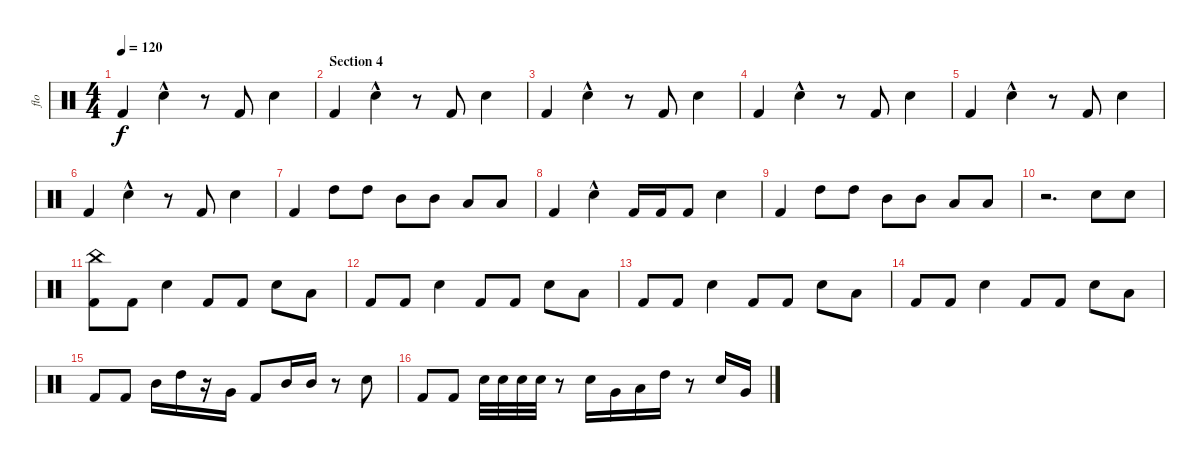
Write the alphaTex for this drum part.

\track ("flo" "flo") {instrument percussion}
\staff {score}
\articulation defaults
\ts (4 4)
\tempo 120
\clef neutral
\ks c "Kick (hit) 2".4{dy f} "Electric Snare (hit)"{hac}.4
r.8 "Kick (hit) 2".8 "Electric Snare (hit)".4 |
\section ("" "Section 4")
"Kick (hit) 2".4 "Electric Snare (hit)"{hac}.4 r.8 "Kick (hit) 2".8 "Electric Snare (hit)".4 |
"Kick (hit) 2".4 "Electric Snare (hit)"{hac}.4 r.8 "Kick (hit) 2".8 "Electric Snare (hit)".4 |
"Kick (hit) 2".4 "Electric Snare (hit)"{hac}.4 r.8 "Kick (hit) 2".8 "Electric Snare (hit)".4 |
"Kick (hit) 2".4 "Electric Snare (hit)"{hac}.4 r.8 "Kick (hit) 2".8 "Electric Snare (hit)".4 |
"Kick (hit) 2".4 "Electric Snare (hit)"{hac}.4 r.8 "Kick (hit) 2".8 "Electric Snare (hit)".4 |
"Kick (hit) 2".4 "High Tom (hit)".8 "High Tom (hit)".8 "Mid Tom (hit)".8 "Mid Tom (hit)".8 "Low Tom (hit)".8 "Low Tom (hit)".8 |
"Kick (hit) 2".4 "Electric Snare (hit)"{hac}.4 "Kick (hit) 2".16 "Kick (hit) 2".16 "Kick (hit) 2".8 "Electric Snare (hit)".4 |
"Kick (hit) 2".4 "High Tom (hit)".8 "High Tom (hit)".8 "Mid Tom (hit)".8 "Mid Tom (hit)".8 "Low Tom (hit)".8 "Low Tom (hit)".8 |
r.2{d} "Electric Snare (hit)".8 "Electric Snare (hit)".8 |
("China (hit)" "Kick (hit) 2").8 "Kick (hit) 2".8 "Snare (hit) 2".4 "Kick (hit) 2".8 "Kick (hit) 2".8 "Snare (hit) 2".8 "Low Floor Tom (hit)".8 |
"Kick (hit) 2".8 "Kick (hit) 2".8 "Snare (hit) 2".4 "Kick (hit) 2".8 "Kick (hit) 2".8 "Snare (hit) 2".8 "Low Floor Tom (hit)".8 |
"Kick (hit) 2".8 "Kick (hit) 2".8 "Snare (hit) 2".4 "Kick (hit) 2".8 "Kick (hit) 2".8 "Snare (hit) 2".8 "Low Floor Tom (hit)".8 |
"Kick (hit) 2".8 "Kick (hit) 2".8 "Snare (hit) 2".4 "Kick (hit) 2".8 "Kick (hit) 2".8 "Snare (hit) 2".8 "Low Floor Tom (hit)".8 |
"Kick (hit) 2".8 "Kick (hit) 2".8 "Mid Tom (hit)".16 "High Tom (hit)".16 r.16 "Very Low Tom (hit)".16 "Kick (hit) 2".8 "Mid Tom (hit)".16 "Mid Tom (hit)".16 r.8 "Snare (hit) 2".8 |
"Kick (hit) 2".8 "Kick (hit) 2".8 "Electric Snare (hit)".32 "Electric Snare (hit)".32 "Electric Snare (hit)".32 "Electric Snare (hit)".32 r.8 "Electric Snare (hit)".16 "Very Low Tom (hit)".16 "Low Tom (hit)".16 "High Tom (hit)".16 r.8 "Electric Snare (hit)".16 "Very Low Tom (hit)".16
